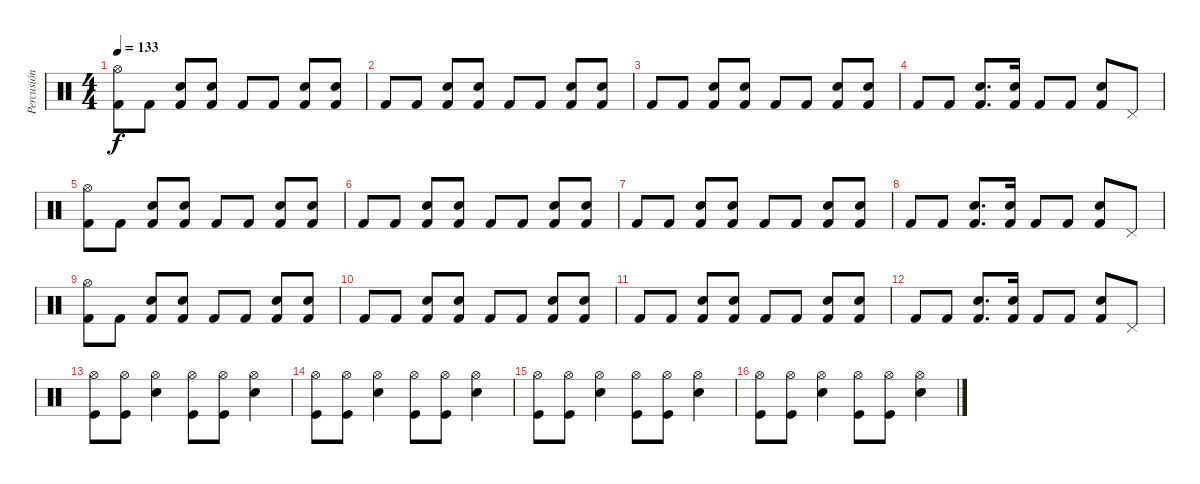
\track ("Percusión" "Percusión") {instrument percussion}
\staff {score}
\articulation defaults
\ts (4 4)
\tempo 133
\clef neutral
\ks c
("Kick (hit) 2" "Hi-Hat (open)").8{dy f} "Kick (hit) 2".8 ("Kick (hit) 2" "Snare (hit) 2").8 ("Kick (hit) 2" "Snare (hit) 2").8 "Kick (hit) 2".8 "Kick (hit) 2".8 ("Kick (hit) 2" "Snare (hit) 2").8 ("Kick (hit) 2" "Snare (hit) 2").8 |
"Kick (hit) 2".8 "Kick (hit) 2".8 ("Kick (hit) 2" "Snare (hit) 2").8 ("Kick (hit) 2" "Snare (hit) 2").8 "Kick (hit) 2".8 "Kick (hit) 2".8 ("Kick (hit) 2" "Snare (hit) 2").8 ("Kick (hit) 2" "Snare (hit) 2").8 |
"Kick (hit) 2".8 "Kick (hit) 2".8 ("Kick (hit) 2" "Snare (hit) 2").8 ("Kick (hit) 2" "Snare (hit) 2").8 "Kick (hit) 2".8 "Kick (hit) 2".8 ("Kick (hit) 2" "Snare (hit) 2").8 ("Kick (hit) 2" "Snare (hit) 2").8 |
"Kick (hit) 2".8 "Kick (hit) 2".8 ("Kick (hit) 2" "Snare (hit) 2").8{d} ("Kick (hit) 2" "Snare (hit) 2").16 "Kick (hit) 2".8 "Kick (hit) 2".8 ("Kick (hit) 2" "Snare (hit) 2").8 "Pedal Hi-Hat (hit)".8 |
("Kick (hit) 2" "Hi-Hat (open)").8 "Kick (hit) 2".8 ("Kick (hit) 2" "Snare (hit) 2").8 ("Kick (hit) 2" "Snare (hit) 2").8 "Kick (hit) 2".8 "Kick (hit) 2".8 ("Kick (hit) 2" "Snare (hit) 2").8 ("Kick (hit) 2" "Snare (hit) 2").8 |
"Kick (hit) 2".8 "Kick (hit) 2".8 ("Kick (hit) 2" "Snare (hit) 2").8 ("Kick (hit) 2" "Snare (hit) 2").8 "Kick (hit) 2".8 "Kick (hit) 2".8 ("Kick (hit) 2" "Snare (hit) 2").8 ("Kick (hit) 2" "Snare (hit) 2").8 |
"Kick (hit) 2".8 "Kick (hit) 2".8 ("Kick (hit) 2" "Snare (hit) 2").8 ("Kick (hit) 2" "Snare (hit) 2").8 "Kick (hit) 2".8 "Kick (hit) 2".8 ("Kick (hit) 2" "Snare (hit) 2").8 ("Kick (hit) 2" "Snare (hit) 2").8 |
"Kick (hit) 2".8 "Kick (hit) 2".8 ("Kick (hit) 2" "Snare (hit) 2").8{d} ("Kick (hit) 2" "Snare (hit) 2").16 "Kick (hit) 2".8 "Kick (hit) 2".8 ("Kick (hit) 2" "Snare (hit) 2").8 "Pedal Hi-Hat (hit)".8 |
("Kick (hit) 2" "Hi-Hat (open)").8 "Kick (hit) 2".8 ("Kick (hit) 2" "Snare (hit) 2").8 ("Kick (hit) 2" "Snare (hit) 2").8 "Kick (hit) 2".8 "Kick (hit) 2".8 ("Kick (hit) 2" "Snare (hit) 2").8 ("Kick (hit) 2" "Snare (hit) 2").8 |
"Kick (hit) 2".8 "Kick (hit) 2".8 ("Kick (hit) 2" "Snare (hit) 2").8 ("Kick (hit) 2" "Snare (hit) 2").8 "Kick (hit) 2".8 "Kick (hit) 2".8 ("Kick (hit) 2" "Snare (hit) 2").8 ("Kick (hit) 2" "Snare (hit) 2").8 |
"Kick (hit) 2".8 "Kick (hit) 2".8 ("Kick (hit) 2" "Snare (hit) 2").8 ("Kick (hit) 2" "Snare (hit) 2").8 "Kick (hit) 2".8 "Kick (hit) 2".8 ("Kick (hit) 2" "Snare (hit) 2").8 ("Kick (hit) 2" "Snare (hit) 2").8 |
"Kick (hit) 2".8 "Kick (hit) 2".8 ("Kick (hit) 2" "Snare (hit) 2").8{d} ("Kick (hit) 2" "Snare (hit) 2").16 "Kick (hit) 2".8 "Kick (hit) 2".8 ("Kick (hit) 2" "Snare (hit) 2").8 "Pedal Hi-Hat (hit)".8 |
("Kick (hit)" "Hi-Hat (open)").8 ("Kick (hit)" "Hi-Hat (open)").8 ("Snare (hit) 2" "Hi-Hat (open)").4 ("Kick (hit)" "Hi-Hat (open)").8 ("Kick (hit)" "Hi-Hat (open)").8 ("Snare (hit) 2" "Hi-Hat (open)").4 |
("Kick (hit)" "Hi-Hat (open)").8 ("Kick (hit)" "Hi-Hat (open)").8 ("Snare (hit) 2" "Hi-Hat (open)").4 ("Kick (hit)" "Hi-Hat (open)").8 ("Kick (hit)" "Hi-Hat (open)").8 ("Snare (hit) 2" "Hi-Hat (open)").4 |
("Kick (hit)" "Hi-Hat (open)").8 ("Kick (hit)" "Hi-Hat (open)").8 ("Snare (hit) 2" "Hi-Hat (open)").4 ("Kick (hit)" "Hi-Hat (open)").8 ("Kick (hit)" "Hi-Hat (open)").8 ("Snare (hit) 2" "Hi-Hat (open)").4 |
("Kick (hit)" "Hi-Hat (open)").8 ("Kick (hit)" "Hi-Hat (open)").8 ("Snare (hit) 2" "Hi-Hat (open)").4 ("Kick (hit)" "Hi-Hat (open)").8 ("Kick (hit)" "Hi-Hat (open)").8 ("Snare (hit) 2" "Hi-Hat (open)").4
